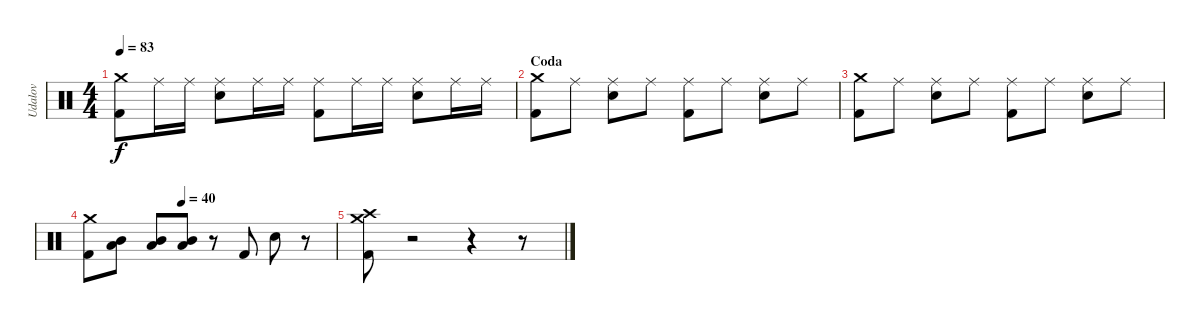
\track ("Udalov" "Udalov") {instrument percussion}
\staff {score}
\articulation defaults
\ts (4 4)
\tempo 83
\clef neutral
\ks c
("Kick (hit) 2" "Crash medium (hit)").8{dy f} "Ride (middle)".16 "Ride (middle)".16 ("Snare (hit) 2" "Ride (middle)").8 "Ride (middle)".16 "Ride (middle)".16 ("Kick (hit) 2" "Ride (middle)").8 "Ride (middle)".16 "Ride (middle)".16 ("Snare (hit) 2" "Ride (middle)").8 "Ride (middle)".16 "Ride (middle)".16 |
\section ("" "Coda")
("Kick (hit) 2" "Crash medium (hit)").8 "Ride (middle)".8 ("Snare (hit) 2" "Ride (middle)").8 "Ride (middle)".8 ("Kick (hit) 2" "Ride (middle)").8 "Ride (middle)".8 ("Snare (hit) 2" "Ride (middle)").8 "Ride (middle)".8 |
("Kick (hit) 2" "Crash medium (hit)").8 "Ride (middle)".8 ("Snare (hit) 2" "Ride (middle)").8 "Ride (middle)".8 ("Kick (hit) 2" "Ride (middle)").8 "Ride (middle)".8 ("Snare (hit) 2" "Ride (middle)").8 "Ride (middle)".8 |
\tempo (40 0.375)
("Kick (hit) 2" "Crash medium (hit)").8 ("Low Tom (hit)" "Mid Tom (hit)").8 ("Mid Tom (hit)" "Low Tom (hit)").8 ("Low Tom (hit)" "Mid Tom (hit)").8 r.8 "Kick (hit) 2".8 "Snare (hit) 2".8 r.8 |
("Kick (hit) 2" "Crash medium (hit)" "Crash high (hit)").8 r.2 r.4 r.8
